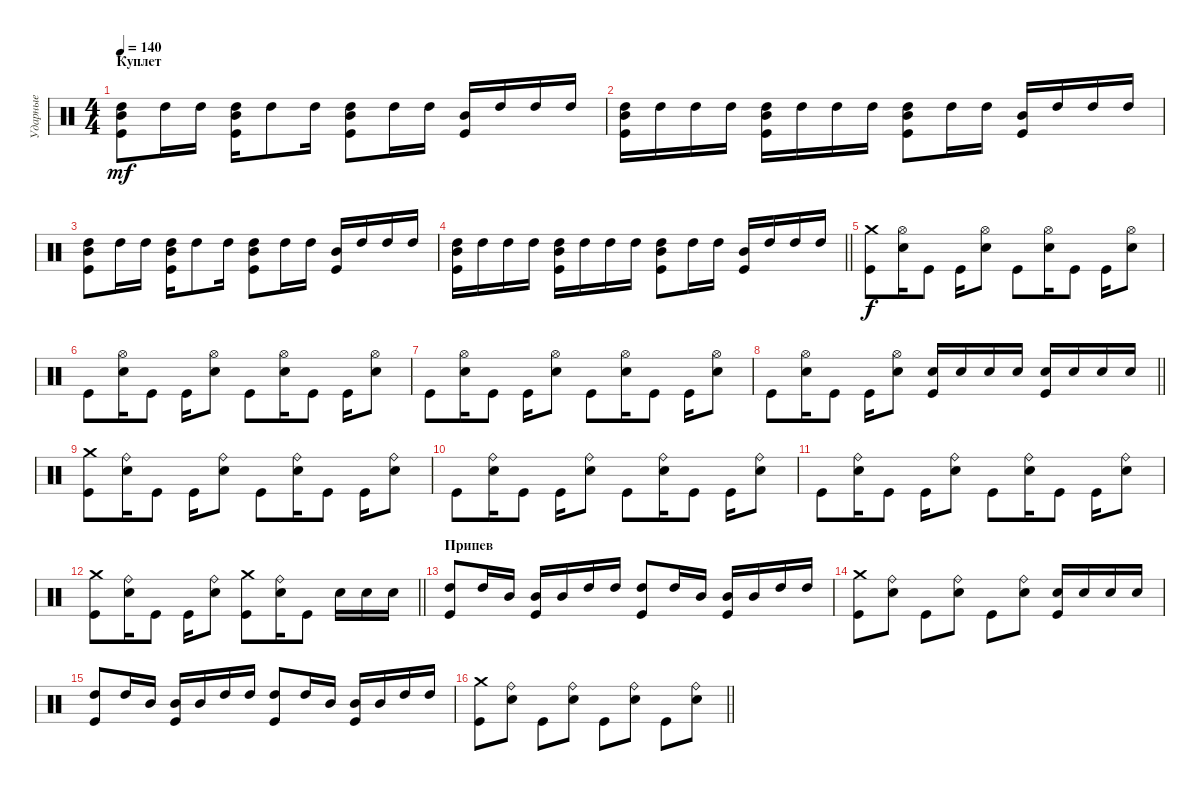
\track ("Ударные" "Ударные") {instrument percussion}
\staff {score}
\articulation defaults
\ts (4 4)
\section ("" "Куплет")
\tempo 140
\clef neutral
\ks c
("High Tom (hit)" "Kick (hit)" "Mid Tom (hit)").8{dy mf} "High Tom (hit)".16 "High Tom (hit)".16 ("High Tom (hit)" "Kick (hit)" "Mid Tom (hit)").16 "High Tom (hit)".8 "High Tom (hit)".16 ("High Tom (hit)" "Kick (hit)" "Mid Tom (hit)").8 "High Tom (hit)".16 "High Tom (hit)".16 ("Kick (hit)" "Mid Tom (hit)").16 "High Tom (hit)".16 "High Tom (hit)".16 "High Tom (hit)".16 |
("High Tom (hit)" "Kick (hit)" "Mid Tom (hit)").16 "High Tom (hit)".16 "High Tom (hit)".16 "High Tom (hit)".16 ("High Tom (hit)" "Kick (hit)" "Mid Tom (hit)").16 "High Tom (hit)".16 "High Tom (hit)".16 "High Tom (hit)".16 ("High Tom (hit)" "Kick (hit)" "Mid Tom (hit)").8 "High Tom (hit)".16 "High Tom (hit)".16 ("Kick (hit)" "Mid Tom (hit)").16 "High Tom (hit)".16 "High Tom (hit)".16 "High Tom (hit)".16 |
("High Tom (hit)" "Kick (hit)" "Mid Tom (hit)").8 "High Tom (hit)".16 "High Tom (hit)".16 ("High Tom (hit)" "Kick (hit)" "Mid Tom (hit)").16 "High Tom (hit)".8 "High Tom (hit)".16 ("High Tom (hit)" "Kick (hit)" "Mid Tom (hit)").8 "High Tom (hit)".16 "High Tom (hit)".16 ("Kick (hit)" "Mid Tom (hit)").16 "High Tom (hit)".16 "High Tom (hit)".16 "High Tom (hit)".16 |
\barLineRight lightlight
("High Tom (hit)" "Kick (hit)" "Mid Tom (hit)").16 "High Tom (hit)".16 "High Tom (hit)".16 "High Tom (hit)".16 ("High Tom (hit)" "Kick (hit)" "Mid Tom (hit)").16 "High Tom (hit)".16 "High Tom (hit)".16 "High Tom (hit)".16 ("High Tom (hit)" "Kick (hit)" "Mid Tom (hit)").8 "High Tom (hit)".16 "High Tom (hit)".16 ("Kick (hit)" "Mid Tom (hit)").16 "High Tom (hit)".16 "High Tom (hit)".16 "High Tom (hit)".16 |
\section ("" " ")
("Crash medium (hit)" "Kick (hit)").8{dy f} ("Hi-Hat (open)" "Electric Snare (hit)").16 "Kick (hit)".8 "Kick (hit)".16 ("Hi-Hat (open)" "Electric Snare (hit)").8 "Kick (hit)".8 ("Hi-Hat (open)" "Electric Snare (hit)").16 "Kick (hit)".8 "Kick (hit)".16 ("Hi-Hat (open)" "Electric Snare (hit)").8 |
"Kick (hit)".8 ("Hi-Hat (open)" "Electric Snare (hit)").16 "Kick (hit)".8 "Kick (hit)".16 ("Hi-Hat (open)" "Electric Snare (hit)").8 "Kick (hit)".8 ("Hi-Hat (open)" "Electric Snare (hit)").16 "Kick (hit)".8 "Kick (hit)".16 ("Hi-Hat (open)" "Electric Snare (hit)").8 |
"Kick (hit)".8 ("Hi-Hat (open)" "Electric Snare (hit)").16 "Kick (hit)".8 "Kick (hit)".16 ("Hi-Hat (open)" "Electric Snare (hit)").8 "Kick (hit)".8 ("Hi-Hat (open)" "Electric Snare (hit)").16 "Kick (hit)".8 "Kick (hit)".16 ("Hi-Hat (open)" "Electric Snare (hit)").8 |
\barLineRight lightlight "Kick (hit)".8
("Hi-Hat (open)" "Electric Snare (hit)").16 "Kick (hit)".8 "Kick (hit)".16 ("Hi-Hat (open)" "Electric Snare (hit)").8 ("Electric Snare (hit)" "Kick (hit)").16 "Electric Snare (hit)".16 "Electric Snare (hit)".16 "Electric Snare (hit)".16 ("Electric Snare (hit)" "Kick (hit)").16 "Electric Snare (hit)".16 "Electric Snare (hit)".16 "Electric Snare (hit)".16 |
\section ("" " ")
("Crash medium (hit)" "Kick (hit)").8 ("Ride (bell)" "Electric Snare (hit)").16 "Kick (hit)".8 "Kick (hit)".16 ("Ride (bell)" "Electric Snare (hit)").8 "Kick (hit)".8 ("Ride (bell)" "Electric Snare (hit)").16 "Kick (hit)".8 "Kick (hit)".16 ("Ride (bell)" "Electric Snare (hit)").8 |
"Kick (hit)".8 ("Ride (bell)" "Electric Snare (hit)").16 "Kick (hit)".8 "Kick (hit)".16 ("Ride (bell)" "Electric Snare (hit)").8 "Kick (hit)".8 ("Ride (bell)" "Electric Snare (hit)").16 "Kick (hit)".8 "Kick (hit)".16 ("Ride (bell)" "Electric Snare (hit)").8 |
"Kick (hit)".8 ("Ride (bell)" "Electric Snare (hit)").16 "Kick (hit)".8 "Kick (hit)".16 ("Ride (bell)" "Electric Snare (hit)").8 "Kick (hit)".8 ("Ride (bell)" "Electric Snare (hit)").16 "Kick (hit)".8 "Kick (hit)".16 ("Ride (bell)" "Electric Snare (hit)").8 |
\barLineRight lightlight
("Crash medium (hit)" "Kick (hit)").8 ("Ride (bell)" "Electric Snare (hit)").16 "Kick (hit)".8 "Kick (hit)".16 ("Ride (bell)" "Electric Snare (hit)").8 ("Crash medium (hit)" "Kick (hit)").8 ("Ride (bell)" "Electric Snare (hit)").16 "Kick (hit)".8 "Electric Snare (hit)".16 "Electric Snare (hit)".16 "Electric Snare (hit)".16 |
\section ("" "Припев")
("High Tom (hit)" "Kick (hit)").8 "High Tom (hit)".16 "Mid Tom (hit)".16 ("Mid Tom (hit)" "Kick (hit)").16 "Mid Tom (hit)".16 "High Tom (hit)".16 "High Tom (hit)".16 ("High Tom (hit)" "Kick (hit)").8 "High Tom (hit)".16 "Mid Tom (hit)".16 ("Mid Tom (hit)" "Kick (hit)").16 "Mid Tom (hit)".16 "High Tom (hit)".16 "High Tom (hit)".16 |
("Crash medium (hit)" "Kick (hit)").8 ("Ride (bell)" "Electric Snare (hit)").8 "Kick (hit)".8 ("Ride (bell)" "Electric Snare (hit)").8 "Kick (hit)".8 ("Ride (bell)" "Electric Snare (hit)").8 ("Electric Snare (hit)" "Kick (hit)").16 "Electric Snare (hit)".16 "Electric Snare (hit)".16 "Electric Snare (hit)".16 |
("High Tom (hit)" "Kick (hit)").8 "High Tom (hit)".16 "Mid Tom (hit)".16 ("Mid Tom (hit)" "Kick (hit)").16 "Mid Tom (hit)".16 "High Tom (hit)".16 "High Tom (hit)".16 ("High Tom (hit)" "Kick (hit)").8 "High Tom (hit)".16 "Mid Tom (hit)".16 ("Mid Tom (hit)" "Kick (hit)").16 "Mid Tom (hit)".16 "High Tom (hit)".16 "High Tom (hit)".16 |
\barLineRight lightlight
("Crash medium (hit)" "Kick (hit)").8 ("Ride (bell)" "Electric Snare (hit)").8 "Kick (hit)".8 ("Ride (bell)" "Electric Snare (hit)").8 "Kick (hit)".8 ("Ride (bell)" "Electric Snare (hit)").8 "Kick (hit)".8 ("Ride (bell)" "Electric Snare (hit)").8
